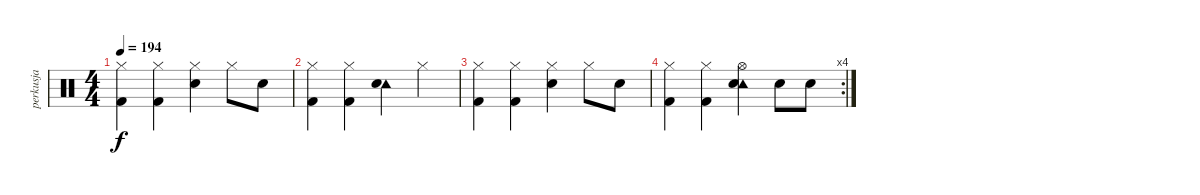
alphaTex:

\track ("perkusja" "perkusja") {instrument percussion}
\staff {score}
\articulation defaults
\ts (4 4)
\tempo 194
\clef neutral
\ks c
("Hi-Hat (closed)" "Kick (hit) 2").4{dy f} ("Hi-Hat (closed)" "Kick (hit) 2").4 ("Hi-Hat (closed)" "Snare (hit) 2").4 "Hi-Hat (closed)".8 "Snare (hit) 2".8 |
("Hi-Hat (closed)" "Kick (hit) 2").4 ("Hi-Hat (closed)" "Kick (hit) 2").4 ("Tambourine (hit)" "Snare (hit) 2").4 "Hi-Hat (closed)".4 |
("Hi-Hat (closed)" "Kick (hit) 2").4 ("Hi-Hat (closed)" "Kick (hit) 2").4 ("Hi-Hat (closed)" "Snare (hit) 2").4 "Hi-Hat (closed)".8 "Snare (hit) 2".8 |
\rc 4
("Hi-Hat (closed)" "Kick (hit) 2").4 ("Hi-Hat (closed)" "Kick (hit) 2").4 ("Tambourine (hit)" "Hi-Hat (open)" "Snare (hit) 2").4 "Snare (hit) 2".8 "Snare (hit) 2".8
